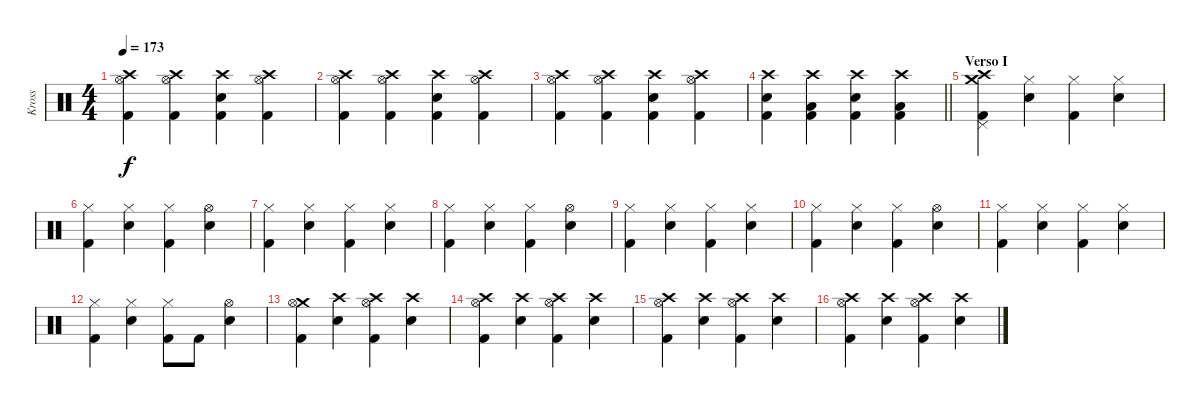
\track ("Kross" "Kross") {instrument percussion}
\staff {score}
\articulation defaults
\ts (4 4)
\tempo 173
\clef neutral
\ks c
("Crash high (hit)" "Hi-Hat (open)" "Kick (hit) 2").4{dy f} ("Crash high (hit)" "Hi-Hat (open)" "Kick (hit) 2").4 ("Crash high (hit)" "Electric Snare (hit)" "Kick (hit) 2").4 ("Crash high (hit)" "Hi-Hat (open)" "Kick (hit) 2").4 |
("Crash high (hit)" "Hi-Hat (open)" "Kick (hit) 2").4 ("Crash high (hit)" "Hi-Hat (open)" "Kick (hit) 2").4 ("Crash high (hit)" "Electric Snare (hit)" "Kick (hit) 2").4 ("Crash high (hit)" "Hi-Hat (open)" "Kick (hit) 2").4 |
("Crash high (hit)" "Hi-Hat (open)" "Kick (hit) 2").4 ("Crash high (hit)" "Hi-Hat (open)" "Kick (hit) 2").4 ("Crash high (hit)" "Electric Snare (hit)" "Kick (hit) 2").4 ("Crash high (hit)" "Hi-Hat (open)" "Kick (hit) 2").4 |
\barLineRight lightlight
("Crash high (hit)" "Electric Snare (hit)" "Kick (hit) 2").4 ("Crash high (hit)" "Low Tom (hit)" "Kick (hit) 2").4 ("Crash high (hit)" "Electric Snare (hit)" "Kick (hit) 2").4 ("Crash high (hit)" "Low Tom (hit)" "Kick (hit) 2").4 |
\section ("" "Verso I")
("Crash medium (hit)" "Crash high (hit)" "Pedal Hi-Hat (hit)" "Kick (hit) 2").4 ("Hi-Hat (closed)" "Electric Snare (hit)").4 ("Hi-Hat (closed)" "Kick (hit) 2").4 ("Hi-Hat (closed)" "Electric Snare (hit)").4 |
("Hi-Hat (closed)" "Kick (hit) 2").4 ("Hi-Hat (closed)" "Electric Snare (hit)").4 ("Hi-Hat (closed)" "Kick (hit) 2").4 ("Hi-Hat (open)" "Electric Snare (hit)").4 |
("Hi-Hat (closed)" "Kick (hit) 2").4 ("Hi-Hat (closed)" "Electric Snare (hit)").4 ("Hi-Hat (closed)" "Kick (hit) 2").4 ("Hi-Hat (closed)" "Electric Snare (hit)").4 |
("Hi-Hat (closed)" "Kick (hit) 2").4 ("Hi-Hat (closed)" "Electric Snare (hit)").4 ("Hi-Hat (closed)" "Kick (hit) 2").4 ("Hi-Hat (open)" "Electric Snare (hit)").4 |
("Hi-Hat (closed)" "Kick (hit) 2").4 ("Hi-Hat (closed)" "Electric Snare (hit)").4 ("Hi-Hat (closed)" "Kick (hit) 2").4 ("Hi-Hat (closed)" "Electric Snare (hit)").4 |
("Hi-Hat (closed)" "Kick (hit) 2").4 ("Hi-Hat (closed)" "Electric Snare (hit)").4 ("Hi-Hat (closed)" "Kick (hit) 2").4 ("Hi-Hat (open)" "Electric Snare (hit)").4 |
("Hi-Hat (closed)" "Kick (hit) 2").4 ("Hi-Hat (closed)" "Electric Snare (hit)").4 ("Hi-Hat (closed)" "Kick (hit) 2").4 ("Hi-Hat (closed)" "Electric Snare (hit)").4 |
("Hi-Hat (closed)" "Kick (hit) 2").4 ("Hi-Hat (closed)" "Electric Snare (hit)").4 ("Hi-Hat (closed)" "Kick (hit) 2").8 "Kick (hit) 2".8 ("Hi-Hat (open)" "Electric Snare (hit)").4 |
("Crash medium (hit)" "Hi-Hat (open)" "Kick (hit) 2").4 ("Crash high (hit)" "Electric Snare (hit)").4 ("Crash high (hit)" "Hi-Hat (open)" "Kick (hit) 2").4 ("Crash high (hit)" "Electric Snare (hit)").4 |
("Crash high (hit)" "Hi-Hat (open)" "Kick (hit) 2").4 ("Crash high (hit)" "Electric Snare (hit)").4 ("Crash high (hit)" "Hi-Hat (open)" "Kick (hit) 2").4 ("Crash high (hit)" "Electric Snare (hit)").4 |
("Crash high (hit)" "Hi-Hat (open)" "Kick (hit) 2").4 ("Crash high (hit)" "Electric Snare (hit)").4 ("Crash high (hit)" "Hi-Hat (open)" "Kick (hit) 2").4 ("Crash high (hit)" "Electric Snare (hit)").4 |
("Crash high (hit)" "Hi-Hat (open)" "Kick (hit) 2").4 ("Crash high (hit)" "Electric Snare (hit)").4 ("Crash high (hit)" "Hi-Hat (open)" "Kick (hit) 2").4 ("Crash high (hit)" "Electric Snare (hit)").4
